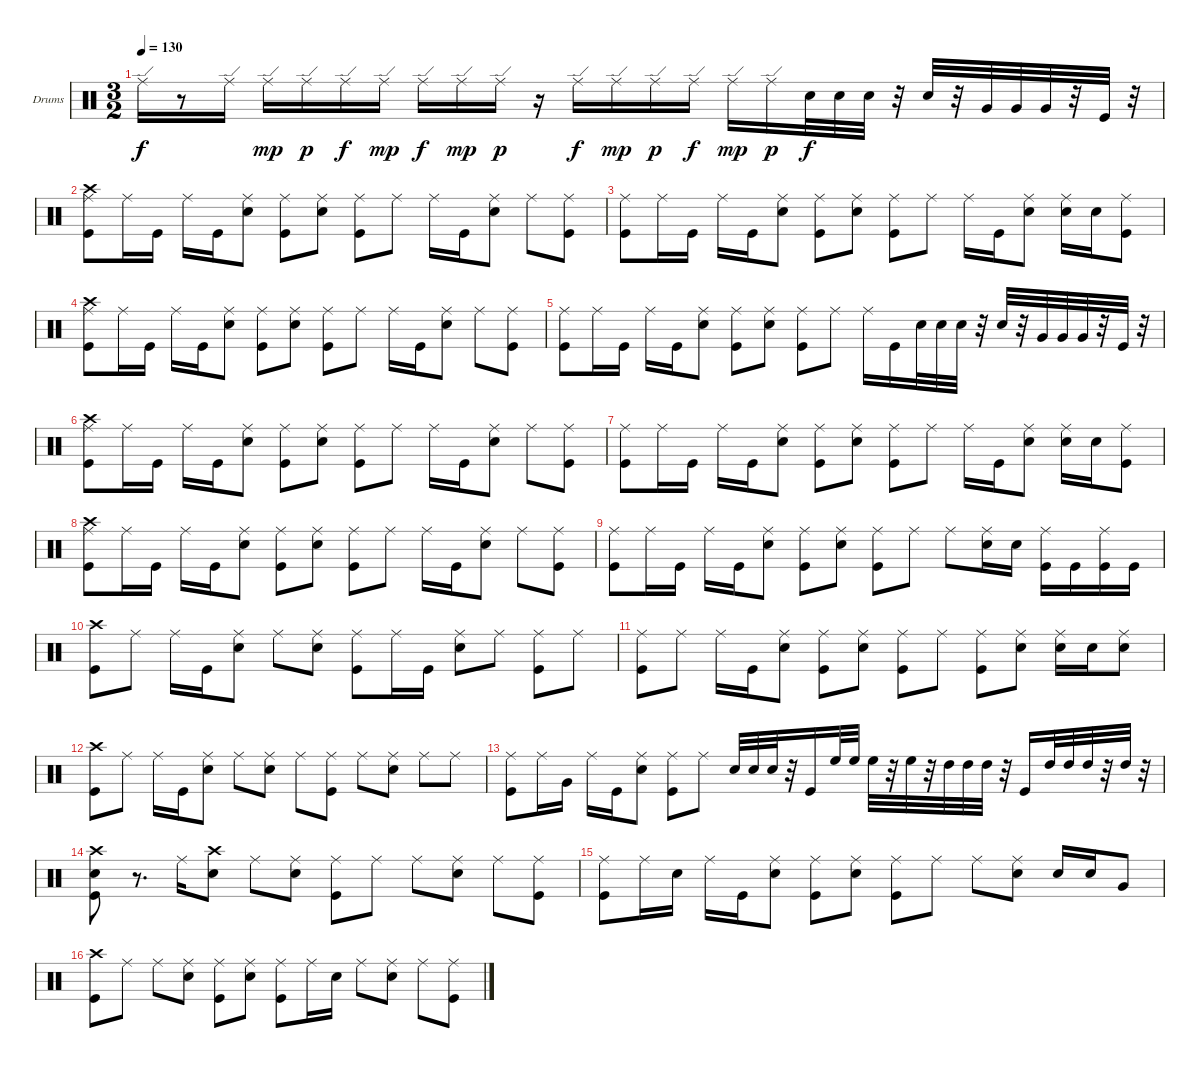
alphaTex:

\bracketExtendMode groupsimilarinstruments
\firstSystemTrackNameOrientation horizontal
\otherSystemsTrackNameOrientation horizontal
\track ("Барабаны" "Drums") {instrument percussion}
\staff {score}
\articulation defaults
\ts (3 2)
\tempo 130
\clef neutral
\ks c "Ride (edge)".16{dy f}
r.8 "Ride (edge)".16 "Ride (edge)".16{dy mp} "Ride (edge)".16{dy p} "Ride (edge)".16{dy f} "Ride (edge)".16{dy mp} "Ride (edge)".16{dy f} "Ride (edge)".16{dy mp} "Ride (edge)".16{dy p} r.16 "Ride (edge)".16{dy f} "Ride (edge)".16{dy mp} "Ride (edge)".16{dy p} "Ride (edge)".16{dy f} "Ride (edge)".16{dy mp} "Ride (edge)".16{dy p} "Snare (hit) 2".32{dy f} "Snare (hit) 2".32 "Snare (hit) 2".32 r.32 "Snare (hit) 2".32 r.32 "Very Low Tom (hit)".32 "Very Low Tom (hit)".32 "Very Low Tom (hit)".32 r.32 "Kick (hit)".32 r.32 |
("Ride (middle)" "Kick (hit)" "Crash high (hit)").8 "Ride (middle)".16 "Kick (hit)".16 "Ride (middle)".16 "Kick (hit)".16 ("Snare (hit) 2" "Ride (middle)").8 ("Ride (middle)" "Kick (hit)").8 ("Snare (hit) 2" "Ride (middle)").8 ("Ride (middle)" "Kick (hit)").8 "Ride (middle)".8 "Ride (middle)".16 "Kick (hit)".16 ("Ride (middle)" "Snare (hit) 2").8 "Ride (middle)".8 ("Ride (middle)" "Kick (hit)").8 |
("Ride (middle)" "Kick (hit)").8 "Ride (middle)".16 "Kick (hit)".16 "Ride (middle)".16 "Kick (hit)".16 ("Ride (middle)" "Snare (hit) 2").8 ("Kick (hit)" "Ride (middle)").8 ("Snare (hit) 2" "Ride (middle)").8 ("Kick (hit)" "Ride (middle)").8 "Ride (middle)".8 "Ride (middle)".16 "Kick (hit)".16 ("Snare (hit) 2" "Ride (middle)").8 ("Snare (hit) 2" "Ride (middle)").16 "Snare (hit) 2".16 ("Kick (hit)" "Ride (middle)").8 |
("Ride (middle)" "Crash high (hit)" "Kick (hit)").8 "Ride (middle)".16 "Kick (hit)".16 "Ride (middle)".16 "Kick (hit)".16 ("Ride (middle)" "Snare (hit) 2").8 ("Ride (middle)" "Kick (hit)").8 ("Snare (hit) 2" "Ride (middle)").8 ("Kick (hit)" "Ride (middle)").8 "Ride (middle)".8 "Ride (middle)".16 "Kick (hit)".16 ("Ride (middle)" "Snare (hit) 2").8 "Ride (middle)".8 ("Ride (middle)" "Kick (hit)").8 |
("Ride (middle)" "Kick (hit)").8 "Ride (middle)".16 "Kick (hit)".16 "Ride (middle)".16 "Kick (hit)".16 ("Snare (hit) 2" "Ride (middle)").8 ("Kick (hit)" "Ride (middle)").8 ("Ride (middle)" "Snare (hit) 2").8 ("Ride (middle)" "Kick (hit)").8 "Ride (middle)".8 "Ride (middle)".16 "Kick (hit)".16 "Snare (hit) 2".32 "Snare (hit) 2".32 "Snare (hit) 2".32 r.32 "Snare (hit) 2".32 r.32 "Very Low Tom (hit)".32 "Very Low Tom (hit)".32 "Very Low Tom (hit)".32 r.32 "Kick (hit)".32 r.32 |
("Kick (hit)" "Ride (middle)" "Crash high (hit)").8 "Ride (middle)".16 "Kick (hit)".16 "Ride (middle)".16 "Kick (hit)".16 ("Snare (hit) 2" "Ride (middle)").8 ("Kick (hit)" "Ride (middle)").8 ("Snare (hit) 2" "Ride (middle)").8 ("Ride (middle)" "Kick (hit)").8 "Ride (middle)".8 "Ride (middle)".16 "Kick (hit)".16 ("Ride (middle)" "Snare (hit) 2").8 "Ride (middle)".8 ("Kick (hit)" "Ride (middle)").8 |
("Ride (middle)" "Kick (hit)").8 "Ride (middle)".16 "Kick (hit)".16 "Ride (middle)".16 "Kick (hit)".16 ("Ride (middle)" "Snare (hit) 2").8 ("Ride (middle)" "Kick (hit)").8 ("Ride (middle)" "Snare (hit) 2").8 ("Kick (hit)" "Ride (middle)").8 "Ride (middle)".8 "Ride (middle)".16 "Kick (hit)".16 ("Snare (hit) 2" "Ride (middle)").8 ("Snare (hit) 2" "Ride (middle)").16 "Snare (hit) 2".16 ("Ride (middle)" "Kick (hit)").8 |
("Ride (middle)" "Crash high (hit)" "Kick (hit)").8 "Ride (middle)".16 "Kick (hit)".16 "Ride (middle)".16 "Kick (hit)".16 ("Snare (hit) 2" "Ride (middle)").8 ("Ride (middle)" "Kick (hit)").8 ("Snare (hit) 2" "Ride (middle)").8 ("Kick (hit)" "Ride (middle)").8 "Ride (middle)".8 "Ride (middle)".16 "Kick (hit)".16 ("Snare (hit) 2" "Ride (middle)").8 "Ride (middle)".8 ("Ride (middle)" "Kick (hit)").8 |
("Ride (middle)" "Kick (hit)").8 "Ride (middle)".16 "Kick (hit)".16 "Ride (middle)".16 "Kick (hit)".16 ("Ride (middle)" "Snare (hit) 2").8 ("Kick (hit)" "Ride (middle)").8 ("Snare (hit) 2" "Ride (middle)").8 ("Kick (hit)" "Ride (middle)").8 "Ride (middle)".8 "Ride (middle)".8 ("Snare (hit) 2" "Ride (middle)").16 "Snare (hit) 2".16 ("Kick (hit)" "Ride (middle)").16 "Kick (hit)".16 ("Ride (middle)" "Kick (hit)").16 "Kick (hit)".16 |
("Crash high (hit)" "Kick (hit)").8 "Ride (middle)".8 "Ride (middle)".16 "Kick (hit)".16 ("Ride (middle)" "Snare (hit) 2").8 "Ride (middle)".8 ("Snare (hit) 2" "Ride (middle)").8 ("Ride (middle)" "Kick (hit)").8 "Ride (middle)".16 "Kick (hit)".16 ("Snare (hit) 2" "Ride (middle)").8 "Ride (middle)".8 ("Ride (middle)" "Kick (hit)").8 "Ride (middle)".8 |
("Ride (middle)" "Kick (hit)").8 "Ride (middle)".8 "Ride (middle)".16 "Kick (hit)".16 ("Ride (middle)" "Snare (hit) 2").8 ("Kick (hit)" "Ride (middle)").8 ("Ride (middle)" "Snare (hit) 2").8 ("Kick (hit)" "Ride (middle)").8 "Ride (middle)".8 ("Kick (hit)" "Ride (middle)").8 ("Snare (hit) 2" "Ride (middle)").8 ("Ride (middle)" "Snare (hit) 2").16 "Snare (hit) 2".16 ("Ride (middle)" "Snare (hit) 2").8 |
("Crash high (hit)" "Kick (hit)").8 "Ride (middle)".8 "Ride (middle)".16 "Kick (hit)".16 ("Ride (middle)" "Snare (hit) 2").8 "Ride (middle)".8 ("Ride (middle)" "Snare (hit) 2").8 "Ride (middle)".8 ("Kick (hit)" "Ride (middle)").8 "Ride (middle)".8 ("Snare (hit) 2" "Ride (middle)").8 "Ride (middle)".8 "Ride (middle)".8 |
("Kick (hit)" "Ride (middle)").8 "Ride (middle)".16 "Very Low Tom (hit)".16 "Ride (middle)".16 "Kick (hit)".16 ("Ride (middle)" "Snare (hit) 2").8 ("Kick (hit)" "Ride (middle)").8 "Ride (middle)".8 "Snare (hit) 2".32 "Snare (hit) 2".32 "Snare (hit) 2".32 r.32 "Kick (hit)".16 "High Floor Tom (hit)".32 "High Floor Tom (hit)".32 "High Floor Tom (hit)".32 r.32 "High Floor Tom (hit)".32 r.32 "High Tom (hit)".32 "High Tom (hit)".32 "High Tom (hit)".32 r.32 "Kick (hit)".16 "High Tom (hit)".32 "High Tom (hit)".32 "High Tom (hit)".32 r.32 "High Tom (hit)".32 r.32 |
("Snare (hit) 2" "Crash high (hit)" "Kick (hit)").8 r.8{d} "Ride (middle)".16 ("Crash high (hit)" "Snare (hit) 2").8 "Ride (middle)".8 ("Snare (hit) 2" "Ride (middle)").8 ("Kick (hit)" "Ride (middle)").8 "Ride (middle)".8 "Ride (middle)".8 ("Ride (middle)" "Snare (hit) 2").8 "Ride (middle)".8 ("Ride (middle)" "Kick (hit)").8 |
("Kick (hit)" "Ride (middle)").8 "Ride (middle)".16 "Snare (hit) 2".16 "Ride (middle)".16 "Kick (hit)".16 ("Ride (middle)" "Snare (hit) 2").8 ("Kick (hit)" "Ride (middle)").8 ("Ride (middle)" "Snare (hit) 2").8 ("Kick (hit)" "Ride (middle)").8 "Ride (middle)".8 "Ride (middle)".8 ("Snare (hit) 2" "Ride (middle)").8 "Snare (hit) 2".16 "Snare (hit) 2".16 "Very Low Tom (hit)".8 |
("Kick (hit)" "Crash high (hit)").8 "Ride (middle)".8 "Ride (middle)".8 ("Snare (hit) 2" "Ride (middle)").8 ("Kick (hit)" "Ride (middle)").8 ("Snare (hit) 2" "Ride (middle)").8 ("Ride (middle)" "Kick (hit)").8 "Ride (middle)".16 "Snare (hit) 2".16 "Ride (middle)".8 ("Ride (middle)" "Snare (hit) 2").8 "Ride (middle)".8 ("Kick (hit)" "Ride (middle)").8
